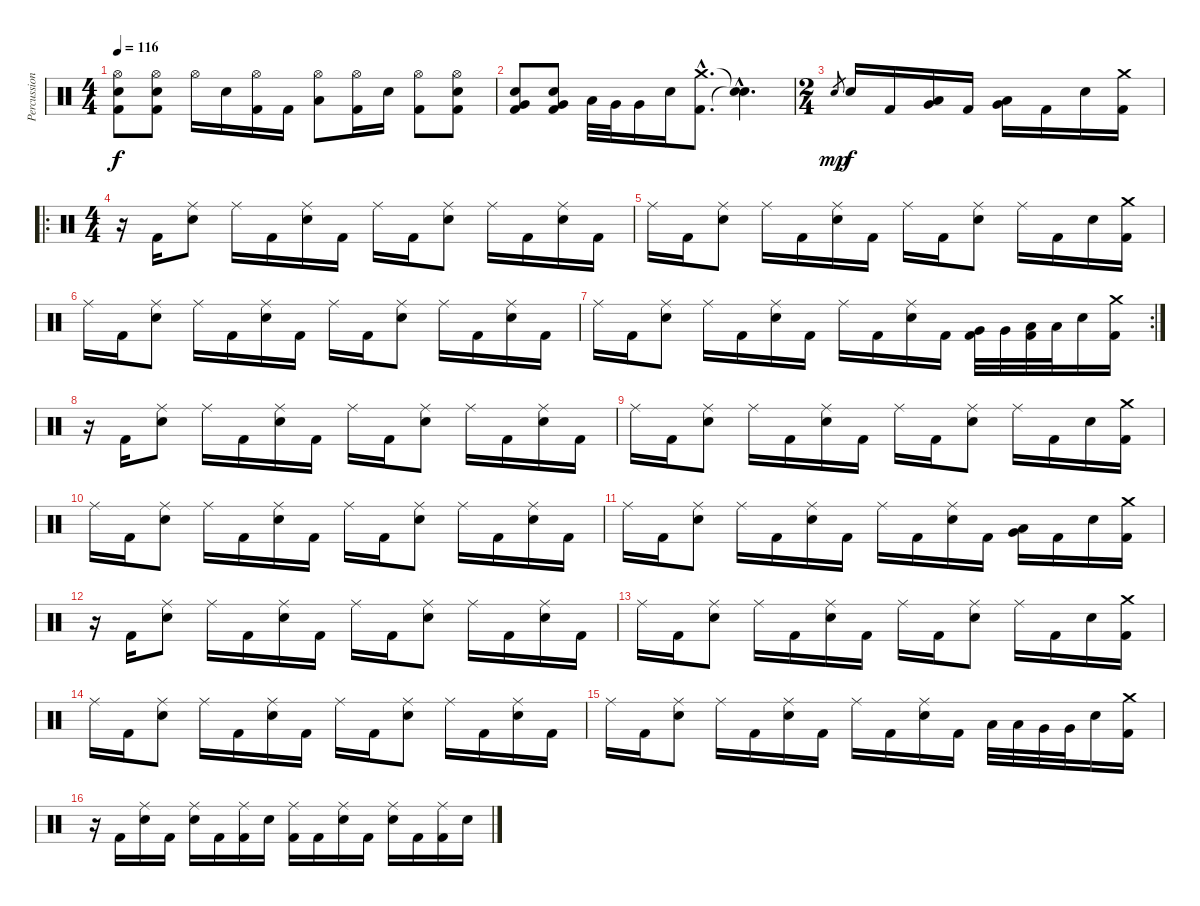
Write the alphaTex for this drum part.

\track ("Percussion" "Percussion") {instrument percussion}
\staff {score}
\articulation defaults
\ts (4 4)
\tempo 116
\clef neutral
\ks c
("Hi-Hat (open)" "Electric Snare (hit)" "Kick (hit) 2").8{dy f} ("Hi-Hat (open)" "Electric Snare (hit)" "Kick (hit) 2").8 "Hi-Hat (open)".16 "Electric Snare (hit)".16 ("Hi-Hat (open)" "Kick (hit) 2").16 "Kick (hit) 2".16 ("Hi-Hat (open)" "Low Tom (hit)").8 ("Hi-Hat (open)" "Kick (hit) 2").16 "Electric Snare (hit)".16 ("Hi-Hat (open)" "Kick (hit) 2").8 ("Hi-Hat (open)" "Electric Snare (hit)" "Kick (hit) 2").8 |
("Electric Snare (hit)" "Very Low Tom (hit)" "Kick (hit) 2").8 ("Electric Snare (hit)" "Very Low Tom (hit)" "Kick (hit) 2").8 "Low Tom (hit)".32 "Very Low Tom (hit)".32 "Very Low Tom (hit)".16 "Electric Snare (hit)".16 ("Crash medium (hit)"{hac} "Kick (hit) 2"{hac}).8{d} ("Snare (hit)"{hac t} "Snare (hit)"{hac t}).4{d} |
\ts (2 4)
"Electric Snare (hit)".8{gr dy mp} "Electric Snare (hit)".16{dy f} "Kick (hit) 2".16 ("Low Tom (hit)" "Very Low Tom (hit)").16 "Kick (hit) 2".16 ("Very Low Tom (hit)" "Low Tom (hit)").16 "Kick (hit) 2".16 "Electric Snare (hit)".16 ("Crash medium (hit)" "Kick (hit) 2").16 |
\ro
\ts (4 4)
r.16 "Kick (hit) 2".16 ("Ride (middle)" "Electric Snare (hit)").8 "Ride (middle)".16 "Kick (hit) 2".16 ("Ride (middle)" "Electric Snare (hit)").16 "Kick (hit) 2".16 "Ride (middle)".16 "Kick (hit) 2".16 ("Ride (middle)" "Electric Snare (hit)").8 "Ride (middle)".16 "Kick (hit) 2".16 ("Ride (middle)" "Electric Snare (hit)").16 "Kick (hit) 2".16 |
"Ride (middle)".16 "Kick (hit) 2".16 ("Ride (middle)" "Electric Snare (hit)").8 "Ride (middle)".16 "Kick (hit) 2".16 ("Ride (middle)" "Electric Snare (hit)").16 "Kick (hit) 2".16 "Ride (middle)".16 "Kick (hit) 2".16 ("Ride (middle)" "Electric Snare (hit)").8 "Ride (middle)".16 "Kick (hit) 2".16 "Electric Snare (hit)".16 ("Crash medium (hit)" "Kick (hit) 2").16 |
"Ride (middle)".16 "Kick (hit) 2".16 ("Ride (middle)" "Electric Snare (hit)").8 "Ride (middle)".16 "Kick (hit) 2".16 ("Ride (middle)" "Electric Snare (hit)").16 "Kick (hit) 2".16 "Ride (middle)".16 "Kick (hit) 2".16 ("Ride (middle)" "Electric Snare (hit)").8 "Ride (middle)".16 "Kick (hit) 2".16 ("Ride (middle)" "Electric Snare (hit)").16 "Kick (hit) 2".16 |
\rc 2 "Ride (middle)".16 "Kick (hit) 2".16
("Ride (middle)" "Electric Snare (hit)").8 "Ride (middle)".16 "Kick (hit) 2".16 ("Ride (middle)" "Electric Snare (hit)").16 "Kick (hit) 2".16 "Ride (middle)".16 "Kick (hit) 2".16 ("Ride (middle)" "Electric Snare (hit)").16 "Kick (hit) 2".16 ("Very Low Tom (hit)" "Kick (hit) 2").32 "Very Low Tom (hit)".32 ("Low Tom (hit)" "Kick (hit) 2").32 "Low Tom (hit)".32 "Electric Snare (hit)".16 ("Crash medium (hit)" "Kick (hit) 2").16 |
r.16 "Kick (hit) 2".16 ("Ride (middle)" "Electric Snare (hit)").8 "Ride (middle)".16 "Kick (hit) 2".16 ("Ride (middle)" "Electric Snare (hit)").16 "Kick (hit) 2".16 "Ride (middle)".16 "Kick (hit) 2".16 ("Ride (middle)" "Electric Snare (hit)").8 "Ride (middle)".16 "Kick (hit) 2".16 ("Ride (middle)" "Electric Snare (hit)").16 "Kick (hit) 2".16 |
"Ride (middle)".16 "Kick (hit) 2".16 ("Ride (middle)" "Electric Snare (hit)").8 "Ride (middle)".16 "Kick (hit) 2".16 ("Ride (middle)" "Electric Snare (hit)").16 "Kick (hit) 2".16 "Ride (middle)".16 "Kick (hit) 2".16 ("Ride (middle)" "Electric Snare (hit)").8 "Ride (middle)".16 "Kick (hit) 2".16 "Electric Snare (hit)".16 ("Crash medium (hit)" "Kick (hit) 2").16 |
"Ride (middle)".16 "Kick (hit) 2".16 ("Ride (middle)" "Electric Snare (hit)").8 "Ride (middle)".16 "Kick (hit) 2".16 ("Ride (middle)" "Electric Snare (hit)").16 "Kick (hit) 2".16 "Ride (middle)".16 "Kick (hit) 2".16 ("Ride (middle)" "Electric Snare (hit)").8 "Ride (middle)".16 "Kick (hit) 2".16 ("Ride (middle)" "Electric Snare (hit)").16 "Kick (hit) 2".16 |
"Ride (middle)".16 "Kick (hit) 2".16 ("Ride (middle)" "Electric Snare (hit)").8 "Ride (middle)".16 "Kick (hit) 2".16 ("Ride (middle)" "Electric Snare (hit)").16 "Kick (hit) 2".16 "Ride (middle)".16 "Kick (hit) 2".16 ("Ride (middle)" "Electric Snare (hit)").16 "Kick (hit) 2".16 ("Low Tom (hit)" "Very Low Tom (hit)").16 "Kick (hit) 2".16 "Electric Snare (hit)".16 ("Crash medium (hit)" "Kick (hit) 2").16 |
r.16 "Kick (hit) 2".16 ("Ride (middle)" "Electric Snare (hit)").8 "Ride (middle)".16 "Kick (hit) 2".16 ("Ride (middle)" "Electric Snare (hit)").16 "Kick (hit) 2".16 "Ride (middle)".16 "Kick (hit) 2".16 ("Ride (middle)" "Electric Snare (hit)").8 "Ride (middle)".16 "Kick (hit) 2".16 ("Ride (middle)" "Electric Snare (hit)").16 "Kick (hit) 2".16 |
"Ride (middle)".16 "Kick (hit) 2".16 ("Ride (middle)" "Electric Snare (hit)").8 "Ride (middle)".16 "Kick (hit) 2".16 ("Ride (middle)" "Electric Snare (hit)").16 "Kick (hit) 2".16 "Ride (middle)".16 "Kick (hit) 2".16 ("Ride (middle)" "Electric Snare (hit)").8 "Ride (middle)".16 "Kick (hit) 2".16 "Electric Snare (hit)".16 ("Crash medium (hit)" "Kick (hit) 2").16 |
"Ride (middle)".16 "Kick (hit) 2".16 ("Ride (middle)" "Electric Snare (hit)").8 "Ride (middle)".16 "Kick (hit) 2".16 ("Ride (middle)" "Electric Snare (hit)").16 "Kick (hit) 2".16 "Ride (middle)".16 "Kick (hit) 2".16 ("Ride (middle)" "Electric Snare (hit)").8 "Ride (middle)".16 "Kick (hit) 2".16 ("Ride (middle)" "Electric Snare (hit)").16 "Kick (hit) 2".16 |
"Ride (middle)".16 "Kick (hit) 2".16 ("Ride (middle)" "Electric Snare (hit)").8 "Ride (middle)".16 "Kick (hit) 2".16 ("Ride (middle)" "Electric Snare (hit)").16 "Kick (hit) 2".16 "Ride (middle)".16 "Kick (hit) 2".16 ("Ride (middle)" "Electric Snare (hit)").16 "Kick (hit) 2".16 "Low Tom (hit)".32 "Low Tom (hit)".32 "Very Low Tom (hit)".32 "Very Low Tom (hit)".32 "Electric Snare (hit)".16 ("Crash medium (hit)" "Kick (hit) 2").16 |
r.16 "Kick (hit) 2".16 ("Ride (middle)" "Electric Snare (hit)").16 "Kick (hit) 2".16 ("Ride (middle)" "Electric Snare (hit)").16 "Kick (hit) 2".16 ("Ride (middle)" "Kick (hit) 2").16 "Electric Snare (hit)".16 ("Ride (middle)" "Kick (hit) 2").16 "Kick (hit) 2".16 ("Ride (middle)" "Electric Snare (hit)").16 "Kick (hit) 2".16 ("Ride (middle)" "Electric Snare (hit)").16 "Kick (hit) 2".16 ("Ride (middle)" "Kick (hit) 2").16 "Electric Snare (hit)".16
